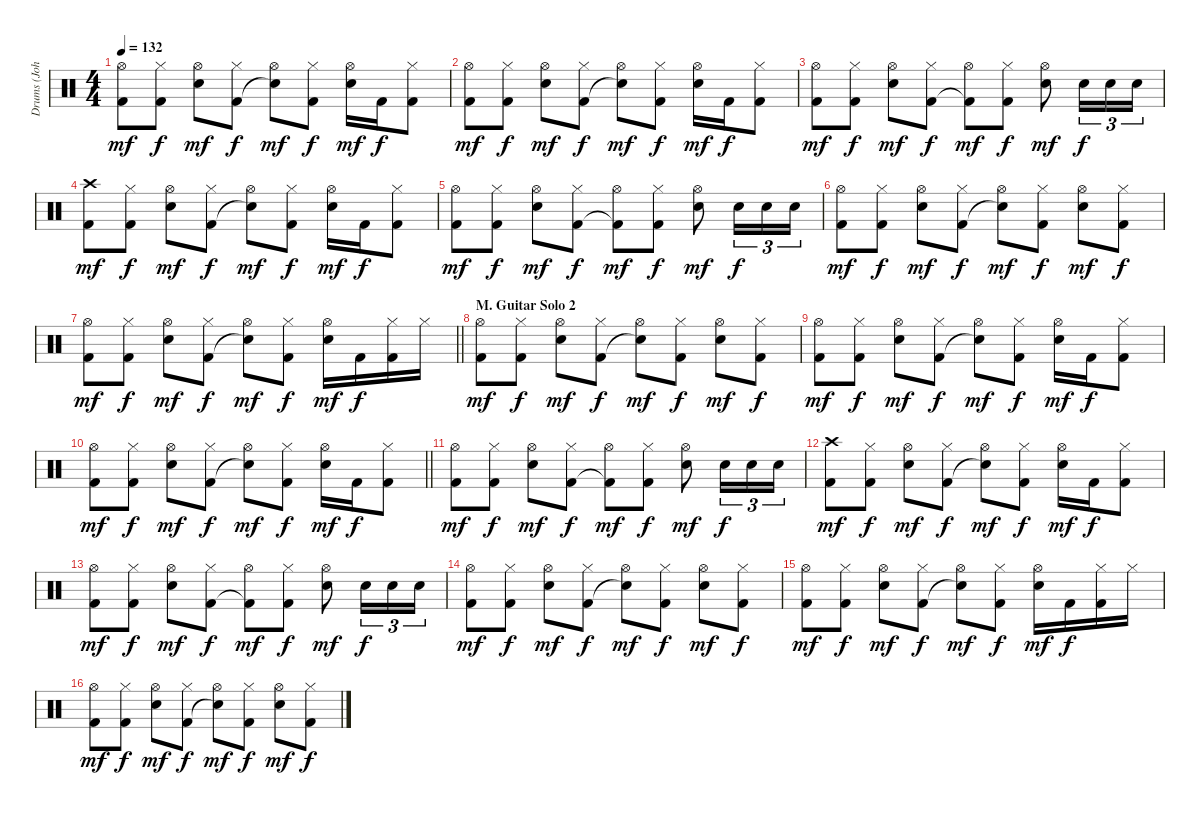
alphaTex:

\track ("Drums (John Bonham)" "Drums (Joh") {instrument percussion}
\staff {score}
\articulation defaults
\ts (4 4)
\tempo 132
\clef neutral
\ks c
("Hi-Hat (open)" "Kick (hit) 2").8{dy mf} ("Hi-Hat (closed)" "Kick (hit) 2").8{dy f} ("Hi-Hat (open)" "Electric Snare (hit)").8{dy mf} ("Hi-Hat (closed)" "Kick (hit) 2").8{dy f} ("Hi-Hat (open)" "Snare (hit)"{t}).8{dy mf} ("Hi-Hat (closed)" "Kick (hit) 2").8{dy f} ("Hi-Hat (open)" "Electric Snare (hit)").16{dy mf} "Kick (hit) 2".16{dy f} ("Hi-Hat (closed)" "Kick (hit) 2").8 |
("Hi-Hat (open)" "Kick (hit) 2").8{dy mf} ("Hi-Hat (closed)" "Kick (hit) 2").8{dy f} ("Hi-Hat (open)" "Electric Snare (hit)").8{dy mf} ("Hi-Hat (closed)" "Kick (hit) 2").8{dy f} ("Hi-Hat (open)" "Snare (hit)"{t}).8{dy mf} ("Hi-Hat (closed)" "Kick (hit) 2").8{dy f} ("Hi-Hat (open)" "Electric Snare (hit)").16{dy mf} "Kick (hit) 2".16{dy f} ("Hi-Hat (closed)" "Kick (hit) 2").8 |
("Hi-Hat (open)" "Kick (hit) 2").8{dy mf} ("Hi-Hat (closed)" "Kick (hit) 2").8{dy f} ("Hi-Hat (open)" "Electric Snare (hit)").8{dy mf} ("Hi-Hat (closed)" "Kick (hit) 2").8{dy f} ("Hi-Hat (open)" "Kick (hit) 2"{t}).8{dy mf} ("Hi-Hat (closed)" "Kick (hit) 2").8{dy f} ("Hi-Hat (open)" "Electric Snare (hit)").8{dy mf} "Electric Snare (hit)".16{tu (3 2) dy f} "Electric Snare (hit)".16{tu (3 2)} "Electric Snare (hit)".16{tu (3 2)} |
("Crash high (hit)" "Kick (hit) 2").8{dy mf} ("Hi-Hat (closed)" "Kick (hit) 2").8{dy f} ("Hi-Hat (open)" "Electric Snare (hit)").8{dy mf} ("Hi-Hat (closed)" "Kick (hit) 2").8{dy f} ("Hi-Hat (open)" "Snare (hit)"{t}).8{dy mf} ("Hi-Hat (closed)" "Kick (hit) 2").8{dy f} ("Hi-Hat (open)" "Electric Snare (hit)").16{dy mf} "Kick (hit) 2".16{dy f} ("Hi-Hat (closed)" "Kick (hit) 2").8 |
("Hi-Hat (open)" "Kick (hit) 2").8{dy mf} ("Hi-Hat (closed)" "Kick (hit) 2").8{dy f} ("Hi-Hat (open)" "Electric Snare (hit)").8{dy mf} ("Hi-Hat (closed)" "Kick (hit) 2").8{dy f} ("Hi-Hat (open)" "Kick (hit) 2"{t}).8{dy mf} ("Hi-Hat (closed)" "Kick (hit) 2").8{dy f} ("Hi-Hat (open)" "Electric Snare (hit)").8{dy mf} "Electric Snare (hit)".16{tu (3 2) dy f} "Electric Snare (hit)".16{tu (3 2)} "Electric Snare (hit)".16{tu (3 2)} |
("Hi-Hat (open)" "Kick (hit) 2").8{dy mf} ("Hi-Hat (closed)" "Kick (hit) 2").8{dy f} ("Hi-Hat (open)" "Electric Snare (hit)").8{dy mf} ("Hi-Hat (closed)" "Kick (hit) 2").8{dy f} ("Hi-Hat (open)" "Snare (hit)"{t}).8{dy mf} ("Hi-Hat (closed)" "Kick (hit) 2").8{dy f} ("Hi-Hat (open)" "Electric Snare (hit)").8{dy mf} ("Hi-Hat (closed)" "Kick (hit) 2").8{dy f} |
\barLineRight lightlight
("Hi-Hat (open)" "Kick (hit) 2").8{dy mf} ("Hi-Hat (closed)" "Kick (hit) 2").8{dy f} ("Hi-Hat (open)" "Electric Snare (hit)").8{dy mf} ("Hi-Hat (closed)" "Kick (hit) 2").8{dy f} ("Hi-Hat (open)" "Snare (hit)"{t}).8{dy mf} ("Hi-Hat (closed)" "Kick (hit) 2").8{dy f} ("Hi-Hat (open)" "Electric Snare (hit)").16{dy mf} "Kick (hit) 2".16{dy f} ("Hi-Hat (closed)" "Kick (hit) 2").16 "Hi-Hat (closed)".16 |
\section ("" "M. Guitar Solo 2")
("Hi-Hat (open)" "Kick (hit) 2").8{dy mf} ("Hi-Hat (closed)" "Kick (hit) 2").8{dy f} ("Hi-Hat (open)" "Electric Snare (hit)").8{dy mf} ("Hi-Hat (closed)" "Kick (hit) 2").8{dy f} ("Hi-Hat (open)" "Snare (hit)"{t}).8{dy mf} ("Hi-Hat (closed)" "Kick (hit) 2").8{dy f} ("Hi-Hat (open)" "Electric Snare (hit)").8{dy mf} ("Hi-Hat (closed)" "Kick (hit) 2").8{dy f} |
("Hi-Hat (open)" "Kick (hit) 2").8{dy mf} ("Hi-Hat (closed)" "Kick (hit) 2").8{dy f} ("Hi-Hat (open)" "Electric Snare (hit)").8{dy mf} ("Hi-Hat (closed)" "Kick (hit) 2").8{dy f} ("Hi-Hat (open)" "Snare (hit)"{t}).8{dy mf} ("Hi-Hat (closed)" "Kick (hit) 2").8{dy f} ("Hi-Hat (open)" "Electric Snare (hit)").16{dy mf} "Kick (hit) 2".16{dy f} ("Hi-Hat (closed)" "Kick (hit) 2").8 |
\barLineRight lightlight
("Hi-Hat (open)" "Kick (hit) 2").8{dy mf} ("Hi-Hat (closed)" "Kick (hit) 2").8{dy f} ("Hi-Hat (open)" "Electric Snare (hit)").8{dy mf} ("Hi-Hat (closed)" "Kick (hit) 2").8{dy f} ("Hi-Hat (open)" "Snare (hit)"{t}).8{dy mf} ("Hi-Hat (closed)" "Kick (hit) 2").8{dy f} ("Hi-Hat (open)" "Electric Snare (hit)").16{dy mf} "Kick (hit) 2".16{dy f} ("Hi-Hat (closed)" "Kick (hit) 2").8 |
\section ("" "")
("Hi-Hat (open)" "Kick (hit) 2").8{dy mf} ("Hi-Hat (closed)" "Kick (hit) 2").8{dy f} ("Hi-Hat (open)" "Electric Snare (hit)").8{dy mf} ("Hi-Hat (closed)" "Kick (hit) 2").8{dy f} ("Hi-Hat (open)" "Kick (hit) 2"{t}).8{dy mf} ("Hi-Hat (closed)" "Kick (hit) 2").8{dy f} ("Hi-Hat (open)" "Electric Snare (hit)").8{dy mf} "Electric Snare (hit)".16{tu (3 2) dy f} "Electric Snare (hit)".16{tu (3 2)} "Electric Snare (hit)".16{tu (3 2)} |
("Crash high (hit)" "Kick (hit) 2").8{dy mf} ("Hi-Hat (closed)" "Kick (hit) 2").8{dy f} ("Hi-Hat (open)" "Electric Snare (hit)").8{dy mf} ("Hi-Hat (closed)" "Kick (hit) 2").8{dy f} ("Hi-Hat (open)" "Snare (hit)"{t}).8{dy mf} ("Hi-Hat (closed)" "Kick (hit) 2").8{dy f} ("Hi-Hat (open)" "Electric Snare (hit)").16{dy mf} "Kick (hit) 2".16{dy f} ("Hi-Hat (closed)" "Kick (hit) 2").8 |
("Hi-Hat (open)" "Kick (hit) 2").8{dy mf} ("Hi-Hat (closed)" "Kick (hit) 2").8{dy f} ("Hi-Hat (open)" "Electric Snare (hit)").8{dy mf} ("Hi-Hat (closed)" "Kick (hit) 2").8{dy f} ("Hi-Hat (open)" "Kick (hit) 2"{t}).8{dy mf} ("Hi-Hat (closed)" "Kick (hit) 2").8{dy f} ("Hi-Hat (open)" "Electric Snare (hit)").8{dy mf} "Electric Snare (hit)".16{tu (3 2) dy f} "Electric Snare (hit)".16{tu (3 2)} "Electric Snare (hit)".16{tu (3 2)} |
("Hi-Hat (open)" "Kick (hit) 2").8{dy mf} ("Hi-Hat (closed)" "Kick (hit) 2").8{dy f} ("Hi-Hat (open)" "Electric Snare (hit)").8{dy mf} ("Hi-Hat (closed)" "Kick (hit) 2").8{dy f} ("Hi-Hat (open)" "Snare (hit)"{t}).8{dy mf} ("Hi-Hat (closed)" "Kick (hit) 2").8{dy f} ("Hi-Hat (open)" "Electric Snare (hit)").8{dy mf} ("Hi-Hat (closed)" "Kick (hit) 2").8{dy f} |
("Hi-Hat (open)" "Kick (hit) 2").8{dy mf} ("Hi-Hat (closed)" "Kick (hit) 2").8{dy f} ("Hi-Hat (open)" "Electric Snare (hit)").8{dy mf} ("Hi-Hat (closed)" "Kick (hit) 2").8{dy f} ("Hi-Hat (open)" "Snare (hit)"{t}).8{dy mf} ("Hi-Hat (closed)" "Kick (hit) 2").8{dy f} ("Hi-Hat (open)" "Electric Snare (hit)").16{dy mf} "Kick (hit) 2".16{dy f} ("Hi-Hat (closed)" "Kick (hit) 2").16 "Hi-Hat (closed)".16 |
("Hi-Hat (open)" "Kick (hit) 2").8{dy mf} ("Hi-Hat (closed)" "Kick (hit) 2").8{dy f} ("Hi-Hat (open)" "Electric Snare (hit)").8{dy mf} ("Hi-Hat (closed)" "Kick (hit) 2").8{dy f} ("Hi-Hat (open)" "Snare (hit)"{t}).8{dy mf} ("Hi-Hat (closed)" "Kick (hit) 2").8{dy f} ("Hi-Hat (open)" "Electric Snare (hit)").8{dy mf} ("Hi-Hat (closed)" "Kick (hit) 2").8{dy f}
